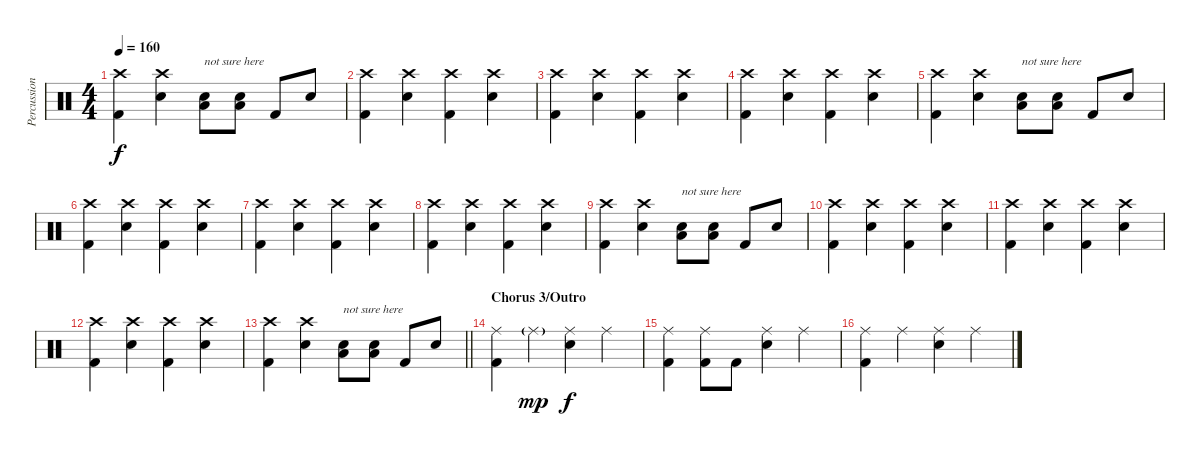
\track ("Percussion" "Percussion") {solo instrument percussion}
\staff {score}
\articulation defaults
\ts (4 4)
\tempo 160
\clef neutral
\ks c
("Crash high (hit)" "Kick (hit) 2").4{dy f} ("Crash high (hit)" "Snare (hit) 2").4 ("Low Tom (hit)" "Snare (hit) 2").8{txt "not sure here"} ("Low Tom (hit)" "Snare (hit) 2").8 "Kick (hit) 2".8 "Snare (hit) 2".8 |
("Crash high (hit)" "Kick (hit) 2").4 ("Crash high (hit)" "Snare (hit) 2").4 ("Crash high (hit)" "Kick (hit) 2").4 ("Crash high (hit)" "Snare (hit) 2").4 |
("Crash high (hit)" "Kick (hit) 2").4 ("Crash high (hit)" "Snare (hit) 2").4 ("Crash high (hit)" "Kick (hit) 2").4 ("Crash high (hit)" "Snare (hit) 2").4 |
("Crash high (hit)" "Kick (hit) 2").4 ("Crash high (hit)" "Snare (hit) 2").4 ("Crash high (hit)" "Kick (hit) 2").4 ("Crash high (hit)" "Snare (hit) 2").4 |
("Crash high (hit)" "Kick (hit) 2").4 ("Crash high (hit)" "Snare (hit) 2").4 ("Low Tom (hit)" "Snare (hit) 2").8{txt "not sure here"} ("Low Tom (hit)" "Snare (hit) 2").8 "Kick (hit) 2".8 "Snare (hit) 2".8 |
("Crash high (hit)" "Kick (hit) 2").4 ("Crash high (hit)" "Snare (hit) 2").4 ("Crash high (hit)" "Kick (hit) 2").4 ("Crash high (hit)" "Snare (hit) 2").4 |
("Crash high (hit)" "Kick (hit) 2").4 ("Crash high (hit)" "Snare (hit) 2").4 ("Crash high (hit)" "Kick (hit) 2").4 ("Crash high (hit)" "Snare (hit) 2").4 |
("Crash high (hit)" "Kick (hit) 2").4 ("Crash high (hit)" "Snare (hit) 2").4 ("Crash high (hit)" "Kick (hit) 2").4 ("Crash high (hit)" "Snare (hit) 2").4 |
("Crash high (hit)" "Kick (hit) 2").4 ("Crash high (hit)" "Snare (hit) 2").4 ("Low Tom (hit)" "Snare (hit) 2").8{txt "not sure here"} ("Low Tom (hit)" "Snare (hit) 2").8 "Kick (hit) 2".8 "Snare (hit) 2".8 |
("Crash high (hit)" "Kick (hit) 2").4 ("Crash high (hit)" "Snare (hit) 2").4 ("Crash high (hit)" "Kick (hit) 2").4 ("Crash high (hit)" "Snare (hit) 2").4 |
("Crash high (hit)" "Kick (hit) 2").4 ("Crash high (hit)" "Snare (hit) 2").4 ("Crash high (hit)" "Kick (hit) 2").4 ("Crash high (hit)" "Snare (hit) 2").4 |
("Crash high (hit)" "Kick (hit) 2").4 ("Crash high (hit)" "Snare (hit) 2").4 ("Crash high (hit)" "Kick (hit) 2").4 ("Crash high (hit)" "Snare (hit) 2").4 |
\barLineRight lightlight
("Crash high (hit)" "Kick (hit) 2").4 ("Crash high (hit)" "Snare (hit) 2").4 ("Low Tom (hit)" "Snare (hit) 2").8{txt "not sure here"} ("Low Tom (hit)" "Snare (hit) 2").8 "Kick (hit) 2".8 "Snare (hit) 2".8 |
\section ("" "Chorus 3/Outro")
("Ride (middle)" "Kick (hit) 2").4 "Ride (middle)"{g}.4{dy mp} ("Ride (middle)" "Snare (hit) 2").4{dy f} "Ride (middle)".4 |
("Ride (middle)" "Kick (hit) 2").4 ("Ride (middle)" "Kick (hit) 2").8 "Kick (hit) 2".8 ("Ride (middle)" "Snare (hit) 2").4 "Ride (middle)".4 |
("Ride (middle)" "Kick (hit) 2").4 "Ride (middle)".4 ("Ride (middle)" "Snare (hit) 2").4 "Ride (middle)".4
